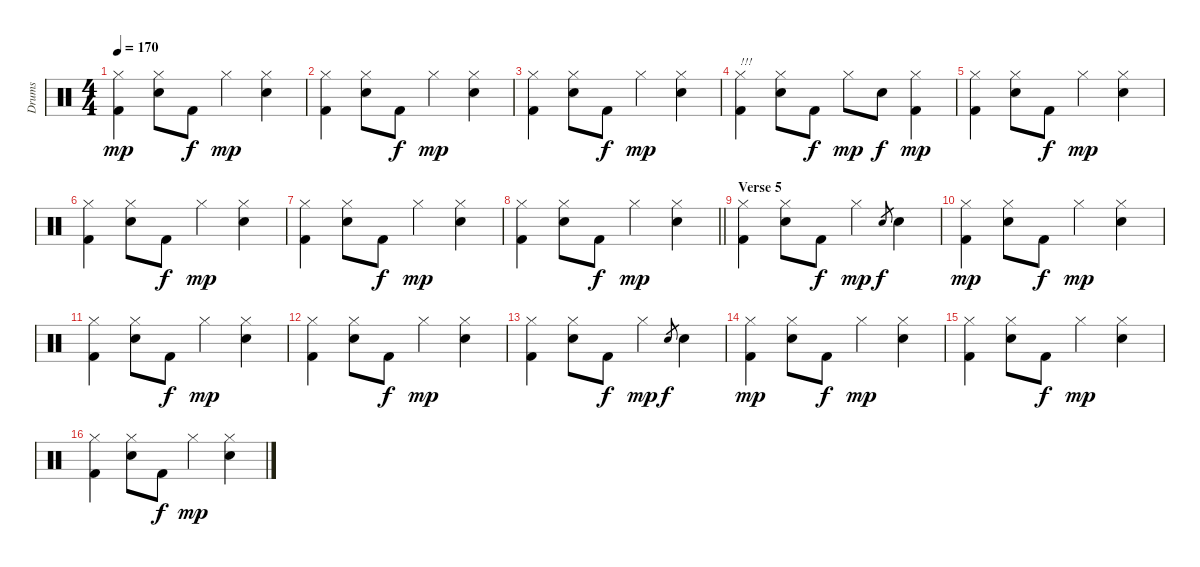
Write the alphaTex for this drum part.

\track ("Drums" "Drums") {instrument percussion}
\staff {score}
\articulation defaults
\ts (4 4)
\tempo 170
\clef neutral
\ks c
("Hi-Hat (closed)" "Kick (hit) 2").4{dy mp} ("Hi-Hat (closed)" "Electric Snare (hit)").8 "Kick (hit) 2".8{dy f} "Hi-Hat (closed)".4{dy mp} ("Hi-Hat (closed)" "Electric Snare (hit)").4 |
("Hi-Hat (closed)" "Kick (hit) 2").4 ("Hi-Hat (closed)" "Electric Snare (hit)").8 "Kick (hit) 2".8{dy f} "Hi-Hat (closed)".4{dy mp} ("Hi-Hat (closed)" "Electric Snare (hit)").4 |
("Hi-Hat (closed)" "Kick (hit) 2").4 ("Hi-Hat (closed)" "Electric Snare (hit)").8 "Kick (hit) 2".8{dy f} "Hi-Hat (closed)".4{dy mp} ("Hi-Hat (closed)" "Electric Snare (hit)").4 |
("Hi-Hat (closed)" "Kick (hit) 2").4{txt "!!!"} ("Hi-Hat (closed)" "Electric Snare (hit)").8 "Kick (hit) 2".8{dy f} "Hi-Hat (closed)".8{dy mp} "Electric Snare (hit)".8{dy f} ("Hi-Hat (closed)" "Kick (hit) 2").4{dy mp} |
("Hi-Hat (closed)" "Kick (hit) 2").4 ("Hi-Hat (closed)" "Electric Snare (hit)").8 "Kick (hit) 2".8{dy f} "Hi-Hat (closed)".4{dy mp} ("Hi-Hat (closed)" "Electric Snare (hit)").4 |
("Hi-Hat (closed)" "Kick (hit) 2").4 ("Hi-Hat (closed)" "Electric Snare (hit)").8 "Kick (hit) 2".8{dy f} "Hi-Hat (closed)".4{dy mp} ("Hi-Hat (closed)" "Electric Snare (hit)").4 |
("Hi-Hat (closed)" "Kick (hit) 2").4 ("Hi-Hat (closed)" "Electric Snare (hit)").8 "Kick (hit) 2".8{dy f} "Hi-Hat (closed)".4{dy mp} ("Hi-Hat (closed)" "Electric Snare (hit)").4 |
\barLineRight lightlight
("Hi-Hat (closed)" "Kick (hit) 2").4 ("Hi-Hat (closed)" "Electric Snare (hit)").8 "Kick (hit) 2".8{dy f} "Hi-Hat (closed)".4{dy mp} ("Hi-Hat (closed)" "Electric Snare (hit)").4 |
\section ("" "Verse 5")
("Hi-Hat (closed)" "Kick (hit) 2").4 ("Hi-Hat (closed)" "Electric Snare (hit)").8 "Kick (hit) 2".8{dy f} "Hi-Hat (closed)".4{dy mp} "Electric Snare (hit)".8{gr dy f} "Electric Snare (hit)".4 |
("Hi-Hat (closed)" "Kick (hit) 2").4{dy mp} ("Hi-Hat (closed)" "Electric Snare (hit)").8 "Kick (hit) 2".8{dy f} "Hi-Hat (closed)".4{dy mp} ("Hi-Hat (closed)" "Electric Snare (hit)").4 |
("Hi-Hat (closed)" "Kick (hit) 2").4 ("Hi-Hat (closed)" "Electric Snare (hit)").8 "Kick (hit) 2".8{dy f} "Hi-Hat (closed)".4{dy mp} ("Hi-Hat (closed)" "Electric Snare (hit)").4 |
("Hi-Hat (closed)" "Kick (hit) 2").4 ("Hi-Hat (closed)" "Electric Snare (hit)").8 "Kick (hit) 2".8{dy f} "Hi-Hat (closed)".4{dy mp} ("Hi-Hat (closed)" "Electric Snare (hit)").4 |
("Hi-Hat (closed)" "Kick (hit) 2").4 ("Hi-Hat (closed)" "Electric Snare (hit)").8 "Kick (hit) 2".8{dy f} "Hi-Hat (closed)".4{dy mp} "Electric Snare (hit)".8{gr dy f} "Electric Snare (hit)".4 |
("Hi-Hat (closed)" "Kick (hit) 2").4{dy mp} ("Hi-Hat (closed)" "Electric Snare (hit)").8 "Kick (hit) 2".8{dy f} "Hi-Hat (closed)".4{dy mp} ("Hi-Hat (closed)" "Electric Snare (hit)").4 |
("Hi-Hat (closed)" "Kick (hit) 2").4 ("Hi-Hat (closed)" "Electric Snare (hit)").8 "Kick (hit) 2".8{dy f} "Hi-Hat (closed)".4{dy mp} ("Hi-Hat (closed)" "Electric Snare (hit)").4 |
("Hi-Hat (closed)" "Kick (hit) 2").4 ("Hi-Hat (closed)" "Electric Snare (hit)").8 "Kick (hit) 2".8{dy f} "Hi-Hat (closed)".4{dy mp} ("Hi-Hat (closed)" "Electric Snare (hit)").4
